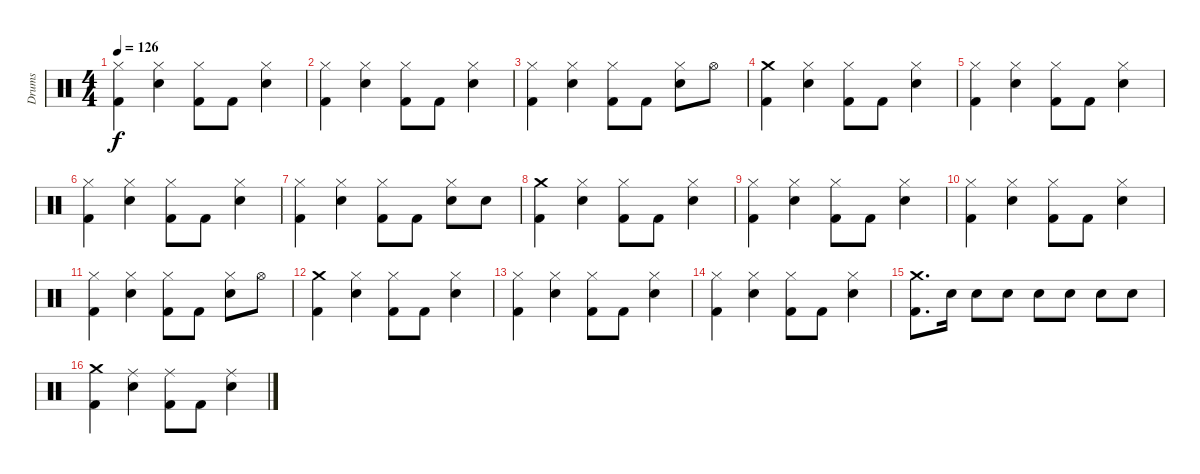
\track ("Drums" "Drums") {instrument percussion}
\staff {score}
\articulation defaults
\ts (4 4)
\tempo 126
\clef neutral
\ks c
("Hi-Hat (closed)" "Kick (hit) 2").4{dy f} ("Hi-Hat (closed)" "Electric Snare (hit)").4 ("Hi-Hat (closed)" "Kick (hit) 2").8 "Kick (hit) 2".8 ("Hi-Hat (closed)" "Electric Snare (hit)").4 |
("Hi-Hat (closed)" "Kick (hit) 2").4 ("Hi-Hat (closed)" "Electric Snare (hit)").4 ("Hi-Hat (closed)" "Kick (hit) 2").8 "Kick (hit) 2".8 ("Hi-Hat (closed)" "Electric Snare (hit)").4 |
("Hi-Hat (closed)" "Kick (hit) 2").4 ("Hi-Hat (closed)" "Electric Snare (hit)").4 ("Hi-Hat (closed)" "Kick (hit) 2").8 "Kick (hit) 2".8 ("Hi-Hat (closed)" "Electric Snare (hit)").8 "Hi-Hat (open)".8 |
("Crash medium (hit)" "Kick (hit) 2").4 ("Hi-Hat (closed)" "Electric Snare (hit)").4 ("Hi-Hat (closed)" "Kick (hit) 2").8 "Kick (hit) 2".8 ("Hi-Hat (closed)" "Electric Snare (hit)").4 |
("Hi-Hat (closed)" "Kick (hit) 2").4 ("Hi-Hat (closed)" "Electric Snare (hit)").4 ("Hi-Hat (closed)" "Kick (hit) 2").8 "Kick (hit) 2".8 ("Hi-Hat (closed)" "Electric Snare (hit)").4 |
("Hi-Hat (closed)" "Kick (hit) 2").4 ("Hi-Hat (closed)" "Electric Snare (hit)").4 ("Hi-Hat (closed)" "Kick (hit) 2").8 "Kick (hit) 2".8 ("Hi-Hat (closed)" "Electric Snare (hit)").4 |
("Hi-Hat (closed)" "Kick (hit) 2").4 ("Hi-Hat (closed)" "Electric Snare (hit)").4 ("Hi-Hat (closed)" "Kick (hit) 2").8 "Kick (hit) 2".8 ("Hi-Hat (closed)" "Electric Snare (hit)").8 "Electric Snare (hit)".8 |
("Crash medium (hit)" "Kick (hit) 2").4 ("Hi-Hat (closed)" "Electric Snare (hit)").4 ("Hi-Hat (closed)" "Kick (hit) 2").8 "Kick (hit) 2".8 ("Hi-Hat (closed)" "Electric Snare (hit)").4 |
("Hi-Hat (closed)" "Kick (hit) 2").4 ("Hi-Hat (closed)" "Electric Snare (hit)").4 ("Hi-Hat (closed)" "Kick (hit) 2").8 "Kick (hit) 2".8 ("Hi-Hat (closed)" "Electric Snare (hit)").4 |
("Hi-Hat (closed)" "Kick (hit) 2").4 ("Hi-Hat (closed)" "Electric Snare (hit)").4 ("Hi-Hat (closed)" "Kick (hit) 2").8 "Kick (hit) 2".8 ("Hi-Hat (closed)" "Electric Snare (hit)").4 |
("Hi-Hat (closed)" "Kick (hit) 2").4 ("Hi-Hat (closed)" "Electric Snare (hit)").4 ("Hi-Hat (closed)" "Kick (hit) 2").8 "Kick (hit) 2".8 ("Hi-Hat (closed)" "Electric Snare (hit)").8 "Hi-Hat (open)".8 |
("Crash medium (hit)" "Kick (hit) 2").4 ("Hi-Hat (closed)" "Electric Snare (hit)").4 ("Hi-Hat (closed)" "Kick (hit) 2").8 "Kick (hit) 2".8 ("Hi-Hat (closed)" "Electric Snare (hit)").4 |
("Hi-Hat (closed)" "Kick (hit) 2").4 ("Hi-Hat (closed)" "Electric Snare (hit)").4 ("Hi-Hat (closed)" "Kick (hit) 2").8 "Kick (hit) 2".8 ("Hi-Hat (closed)" "Electric Snare (hit)").4 |
("Hi-Hat (closed)" "Kick (hit) 2").4 ("Hi-Hat (closed)" "Electric Snare (hit)").4 ("Hi-Hat (closed)" "Kick (hit) 2").8 "Kick (hit) 2".8 ("Hi-Hat (closed)" "Electric Snare (hit)").4 |
("Crash medium (hit)" "Kick (hit) 2").8{d} "Electric Snare (hit)".16 "Electric Snare (hit)".8 "Electric Snare (hit)".8 "Electric Snare (hit)".8 "Electric Snare (hit)".8 "Electric Snare (hit)".8 "Electric Snare (hit)".8 |
("Crash medium (hit)" "Kick (hit) 2").4 ("Ride (middle)" "Electric Snare (hit)").4 ("Ride (middle)" "Kick (hit) 2").8 "Kick (hit) 2".8 ("Ride (middle)" "Electric Snare (hit)").4
